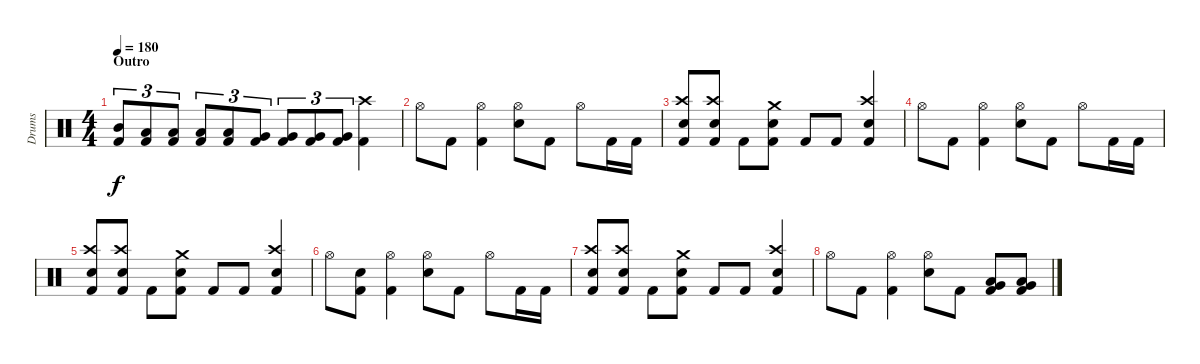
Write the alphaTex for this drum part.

\track ("Drums" "Drums") {instrument percussion}
\staff {score}
\articulation defaults
\ts (4 4)
\section ("" "Outro")
\tempo 180
\clef neutral
\ks c
("Mid Tom (hit)" "Kick (hit) 2").8{tu (3 2) dy f} ("Low Tom (hit)" "Kick (hit) 2").8{tu (3 2)} ("Low Tom (hit)" "Kick (hit) 2").8{tu (3 2)} ("Low Tom (hit)" "Kick (hit) 2").8{tu (3 2)} ("Low Tom (hit)" "Kick (hit) 2").8{tu (3 2)} ("Very Low Tom (hit)" "Kick (hit) 2").8{tu (3 2)} ("Very Low Tom (hit)" "Kick (hit) 2").8{tu (3 2)} ("Very Low Tom (hit)" "Kick (hit) 2").8{tu (3 2)} ("Very Low Tom (hit)" "Kick (hit) 2").8{tu (3 2)} ("Crash high (hit)" "Kick (hit) 2").4 |
"Hi-Hat (open)".8 "Kick (hit) 2".8 ("Hi-Hat (open)" "Kick (hit) 2").4 ("Hi-Hat (open)" "Electric Snare (hit)").8 "Kick (hit) 2".8 "Hi-Hat (open)".8 "Kick (hit) 2".16 "Kick (hit) 2".16 |
("Crash high (hit)" "Electric Snare (hit)" "Kick (hit) 2").8 ("Crash high (hit)" "Electric Snare (hit)" "Kick (hit) 2").8 "Kick (hit) 2".8 ("Crash medium (hit)" "Electric Snare (hit)" "Kick (hit) 2").8 "Kick (hit) 2".8 "Kick (hit) 2".8 ("Crash high (hit)" "Electric Snare (hit)" "Kick (hit) 2").4 |
"Hi-Hat (open)".8 "Kick (hit) 2".8 ("Hi-Hat (open)" "Kick (hit) 2").4 ("Hi-Hat (open)" "Electric Snare (hit)").8 "Kick (hit) 2".8 "Hi-Hat (open)".8 "Kick (hit) 2".16 "Kick (hit) 2".16 |
("Crash high (hit)" "Electric Snare (hit)" "Kick (hit) 2").8 ("Crash high (hit)" "Electric Snare (hit)" "Kick (hit) 2").8 "Kick (hit) 2".8 ("Crash medium (hit)" "Electric Snare (hit)" "Kick (hit) 2").8 "Kick (hit) 2".8 "Kick (hit) 2".8 ("Crash high (hit)" "Electric Snare (hit)" "Kick (hit) 2").4 |
"Hi-Hat (open)".8 ("Electric Snare (hit)" "Kick (hit) 2").8 ("Hi-Hat (open)" "Kick (hit) 2").4 ("Hi-Hat (open)" "Electric Snare (hit)").8 "Kick (hit) 2".8 "Hi-Hat (open)".8 "Kick (hit) 2".16 "Kick (hit) 2".16 |
("Crash high (hit)" "Electric Snare (hit)" "Kick (hit) 2").8 ("Crash high (hit)" "Electric Snare (hit)" "Kick (hit) 2").8 "Kick (hit) 2".8 ("Crash medium (hit)" "Electric Snare (hit)" "Kick (hit) 2").8 "Kick (hit) 2".8 "Kick (hit) 2".8 ("Crash high (hit)" "Electric Snare (hit)" "Kick (hit) 2").4 |
"Hi-Hat (open)".8 "Kick (hit) 2".8 ("Hi-Hat (open)" "Kick (hit) 2").4 ("Hi-Hat (open)" "Electric Snare (hit)").8 "Kick (hit) 2".8 ("Low Tom (hit)" "Very Low Tom (hit)" "Kick (hit) 2").8 ("Low Tom (hit)" "Very Low Tom (hit)" "Kick (hit) 2").8
